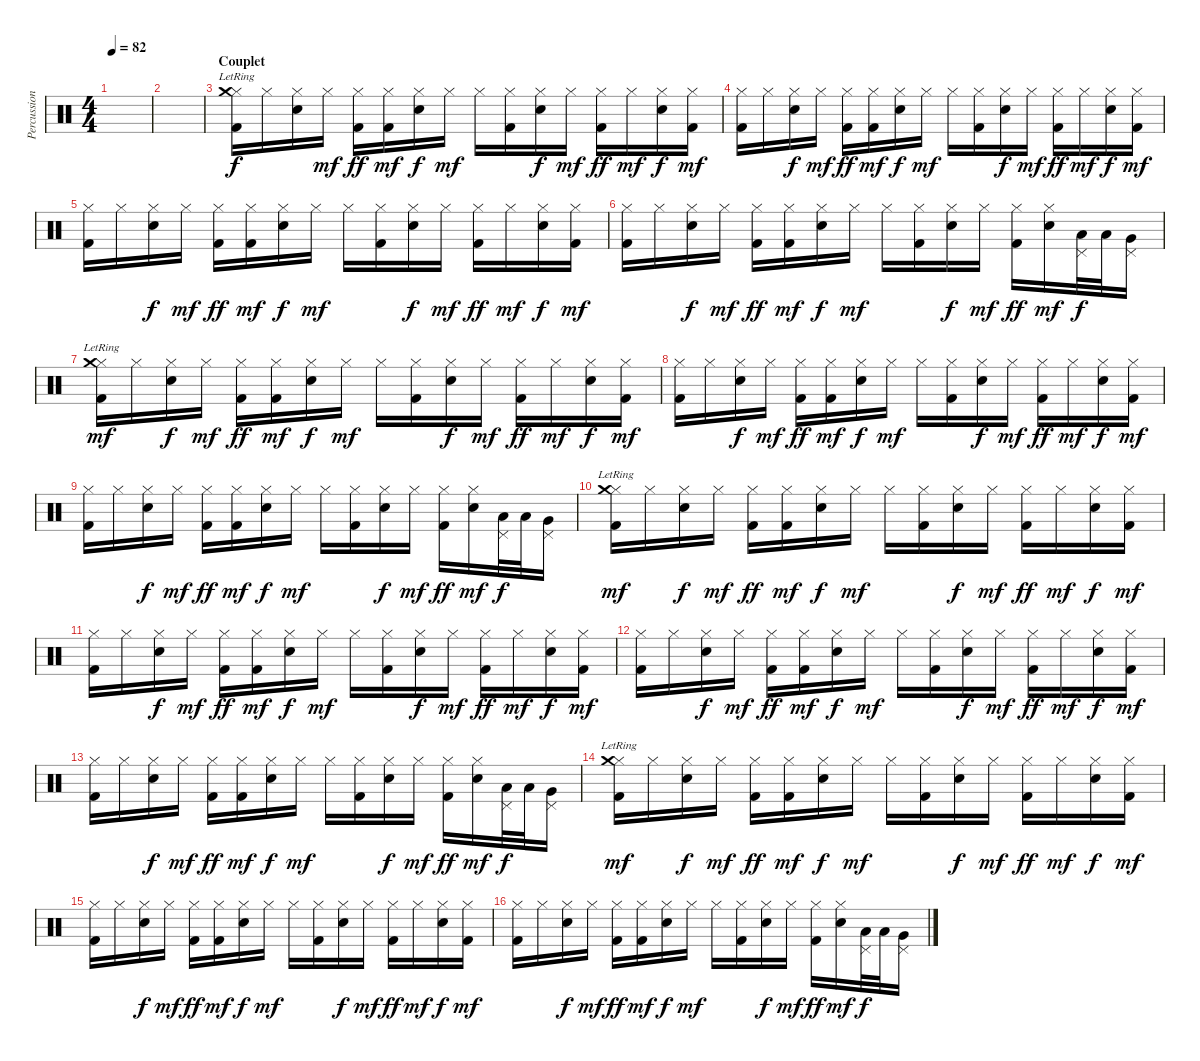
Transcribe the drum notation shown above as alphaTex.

\track ("Percussions" "Percussion") {instrument percussion}
\staff {score}
\articulation defaults
\ts (4 4)
\tempo 82
\clef neutral
\ks c
|
|
\section ("" "Couplet")
("Hi-Hat (closed)" "Crash medium (hit)"{lr} "Kick (hit) 2").16 "Hi-Hat (closed)".16 ("Hi-Hat (closed)" "Snare (hit) 2").16{dy f} "Hi-Hat (closed)".16{dy mf} ("Hi-Hat (closed)" "Kick (hit) 2").16{dy ff} ("Hi-Hat (closed)" "Kick (hit) 2").16{dy mf} ("Hi-Hat (closed)" "Snare (hit) 2").16{dy f} "Hi-Hat (closed)".16{dy mf} "Hi-Hat (closed)".16 ("Hi-Hat (closed)" "Kick (hit) 2").16 ("Hi-Hat (closed)" "Snare (hit) 2").16{dy f} "Hi-Hat (closed)".16{dy mf} ("Hi-Hat (closed)" "Kick (hit) 2").16{dy ff} "Hi-Hat (closed)".16{dy mf} ("Hi-Hat (closed)" "Snare (hit) 2").16{dy f} ("Hi-Hat (closed)" "Kick (hit) 2").16{dy mf} |
("Hi-Hat (closed)" "Kick (hit) 2").16 "Hi-Hat (closed)".16 ("Hi-Hat (closed)" "Snare (hit) 2").16{dy f} "Hi-Hat (closed)".16{dy mf} ("Hi-Hat (closed)" "Kick (hit) 2").16{dy ff} ("Hi-Hat (closed)" "Kick (hit) 2").16{dy mf} ("Hi-Hat (closed)" "Snare (hit) 2").16{dy f} "Hi-Hat (closed)".16{dy mf} "Hi-Hat (closed)".16 ("Hi-Hat (closed)" "Kick (hit) 2").16 ("Hi-Hat (closed)" "Snare (hit) 2").16{dy f} "Hi-Hat (closed)".16{dy mf} ("Hi-Hat (closed)" "Kick (hit) 2").16{dy ff} "Hi-Hat (closed)".16{dy mf} ("Hi-Hat (closed)" "Snare (hit) 2").16{dy f} ("Hi-Hat (closed)" "Kick (hit) 2").16{dy mf} |
("Hi-Hat (closed)" "Kick (hit) 2").16 "Hi-Hat (closed)".16 ("Hi-Hat (closed)" "Snare (hit) 2").16{dy f} "Hi-Hat (closed)".16{dy mf} ("Hi-Hat (closed)" "Kick (hit) 2").16{dy ff} ("Hi-Hat (closed)" "Kick (hit) 2").16{dy mf} ("Hi-Hat (closed)" "Snare (hit) 2").16{dy f} "Hi-Hat (closed)".16{dy mf} "Hi-Hat (closed)".16 ("Hi-Hat (closed)" "Kick (hit) 2").16 ("Hi-Hat (closed)" "Snare (hit) 2").16{dy f} "Hi-Hat (closed)".16{dy mf} ("Hi-Hat (closed)" "Kick (hit) 2").16{dy ff} "Hi-Hat (closed)".16{dy mf} ("Hi-Hat (closed)" "Snare (hit) 2").16{dy f} ("Hi-Hat (closed)" "Kick (hit) 2").16{dy mf} |
("Hi-Hat (closed)" "Kick (hit) 2").16 "Hi-Hat (closed)".16 ("Hi-Hat (closed)" "Snare (hit) 2").16{dy f} "Hi-Hat (closed)".16{dy mf} ("Hi-Hat (closed)" "Kick (hit) 2").16{dy ff} ("Hi-Hat (closed)" "Kick (hit) 2").16{dy mf} ("Hi-Hat (closed)" "Snare (hit) 2").16{dy f} "Hi-Hat (closed)".16{dy mf} "Hi-Hat (closed)".16 ("Hi-Hat (closed)" "Kick (hit) 2").16 ("Hi-Hat (closed)" "Snare (hit) 2").16{dy f} "Hi-Hat (closed)".16{dy mf} ("Hi-Hat (closed)" "Kick (hit) 2").16{dy ff} ("Hi-Hat (closed)" "Snare (hit) 2").16{dy mf} ("Pedal Hi-Hat (hit)" "Low Tom (hit)").32{dy f} "Low Tom (hit)".32 ("Pedal Hi-Hat (hit)" "Very Low Tom (hit)").16 |
("Hi-Hat (closed)" "Crash medium (hit)"{lr} "Kick (hit) 2").16{dy mf} "Hi-Hat (closed)".16 ("Hi-Hat (closed)" "Snare (hit) 2").16{dy f} "Hi-Hat (closed)".16{dy mf} ("Hi-Hat (closed)" "Kick (hit) 2").16{dy ff} ("Hi-Hat (closed)" "Kick (hit) 2").16{dy mf} ("Hi-Hat (closed)" "Snare (hit) 2").16{dy f} "Hi-Hat (closed)".16{dy mf} "Hi-Hat (closed)".16 ("Hi-Hat (closed)" "Kick (hit) 2").16 ("Hi-Hat (closed)" "Snare (hit) 2").16{dy f} "Hi-Hat (closed)".16{dy mf} ("Hi-Hat (closed)" "Kick (hit) 2").16{dy ff} "Hi-Hat (closed)".16{dy mf} ("Hi-Hat (closed)" "Snare (hit) 2").16{dy f} ("Hi-Hat (closed)" "Kick (hit) 2").16{dy mf} |
("Hi-Hat (closed)" "Kick (hit) 2").16 "Hi-Hat (closed)".16 ("Hi-Hat (closed)" "Snare (hit) 2").16{dy f} "Hi-Hat (closed)".16{dy mf} ("Hi-Hat (closed)" "Kick (hit) 2").16{dy ff} ("Hi-Hat (closed)" "Kick (hit) 2").16{dy mf} ("Hi-Hat (closed)" "Snare (hit) 2").16{dy f} "Hi-Hat (closed)".16{dy mf} "Hi-Hat (closed)".16 ("Hi-Hat (closed)" "Kick (hit) 2").16 ("Hi-Hat (closed)" "Snare (hit) 2").16{dy f} "Hi-Hat (closed)".16{dy mf} ("Hi-Hat (closed)" "Kick (hit) 2").16{dy ff} "Hi-Hat (closed)".16{dy mf} ("Hi-Hat (closed)" "Snare (hit) 2").16{dy f} ("Hi-Hat (closed)" "Kick (hit) 2").16{dy mf} |
("Hi-Hat (closed)" "Kick (hit) 2").16 "Hi-Hat (closed)".16 ("Hi-Hat (closed)" "Snare (hit) 2").16{dy f} "Hi-Hat (closed)".16{dy mf} ("Hi-Hat (closed)" "Kick (hit) 2").16{dy ff} ("Hi-Hat (closed)" "Kick (hit) 2").16{dy mf} ("Hi-Hat (closed)" "Snare (hit) 2").16{dy f} "Hi-Hat (closed)".16{dy mf} "Hi-Hat (closed)".16 ("Hi-Hat (closed)" "Kick (hit) 2").16 ("Hi-Hat (closed)" "Snare (hit) 2").16{dy f} "Hi-Hat (closed)".16{dy mf} ("Hi-Hat (closed)" "Kick (hit) 2").16{dy ff} ("Hi-Hat (closed)" "Snare (hit) 2").16{dy mf} ("Pedal Hi-Hat (hit)" "Low Tom (hit)").32{dy f} "Low Tom (hit)".32 ("Pedal Hi-Hat (hit)" "Very Low Tom (hit)").16 |
("Hi-Hat (closed)" "Crash medium (hit)"{lr} "Kick (hit) 2").16{dy mf} "Hi-Hat (closed)".16 ("Hi-Hat (closed)" "Snare (hit) 2").16{dy f} "Hi-Hat (closed)".16{dy mf} ("Hi-Hat (closed)" "Kick (hit) 2").16{dy ff} ("Hi-Hat (closed)" "Kick (hit) 2").16{dy mf} ("Hi-Hat (closed)" "Snare (hit) 2").16{dy f} "Hi-Hat (closed)".16{dy mf} "Hi-Hat (closed)".16 ("Hi-Hat (closed)" "Kick (hit) 2").16 ("Hi-Hat (closed)" "Snare (hit) 2").16{dy f} "Hi-Hat (closed)".16{dy mf} ("Hi-Hat (closed)" "Kick (hit) 2").16{dy ff} "Hi-Hat (closed)".16{dy mf} ("Hi-Hat (closed)" "Snare (hit) 2").16{dy f} ("Hi-Hat (closed)" "Kick (hit) 2").16{dy mf} |
("Hi-Hat (closed)" "Kick (hit) 2").16 "Hi-Hat (closed)".16 ("Hi-Hat (closed)" "Snare (hit) 2").16{dy f} "Hi-Hat (closed)".16{dy mf} ("Hi-Hat (closed)" "Kick (hit) 2").16{dy ff} ("Hi-Hat (closed)" "Kick (hit) 2").16{dy mf} ("Hi-Hat (closed)" "Snare (hit) 2").16{dy f} "Hi-Hat (closed)".16{dy mf} "Hi-Hat (closed)".16 ("Hi-Hat (closed)" "Kick (hit) 2").16 ("Hi-Hat (closed)" "Snare (hit) 2").16{dy f} "Hi-Hat (closed)".16{dy mf} ("Hi-Hat (closed)" "Kick (hit) 2").16{dy ff} "Hi-Hat (closed)".16{dy mf} ("Hi-Hat (closed)" "Snare (hit) 2").16{dy f} ("Hi-Hat (closed)" "Kick (hit) 2").16{dy mf} |
("Hi-Hat (closed)" "Kick (hit) 2").16 "Hi-Hat (closed)".16 ("Hi-Hat (closed)" "Snare (hit) 2").16{dy f} "Hi-Hat (closed)".16{dy mf} ("Hi-Hat (closed)" "Kick (hit) 2").16{dy ff} ("Hi-Hat (closed)" "Kick (hit) 2").16{dy mf} ("Hi-Hat (closed)" "Snare (hit) 2").16{dy f} "Hi-Hat (closed)".16{dy mf} "Hi-Hat (closed)".16 ("Hi-Hat (closed)" "Kick (hit) 2").16 ("Hi-Hat (closed)" "Snare (hit) 2").16{dy f} "Hi-Hat (closed)".16{dy mf} ("Hi-Hat (closed)" "Kick (hit) 2").16{dy ff} "Hi-Hat (closed)".16{dy mf} ("Hi-Hat (closed)" "Snare (hit) 2").16{dy f} ("Hi-Hat (closed)" "Kick (hit) 2").16{dy mf} |
("Hi-Hat (closed)" "Kick (hit) 2").16 "Hi-Hat (closed)".16 ("Hi-Hat (closed)" "Snare (hit) 2").16{dy f} "Hi-Hat (closed)".16{dy mf} ("Hi-Hat (closed)" "Kick (hit) 2").16{dy ff} ("Hi-Hat (closed)" "Kick (hit) 2").16{dy mf} ("Hi-Hat (closed)" "Snare (hit) 2").16{dy f} "Hi-Hat (closed)".16{dy mf} "Hi-Hat (closed)".16 ("Hi-Hat (closed)" "Kick (hit) 2").16 ("Hi-Hat (closed)" "Snare (hit) 2").16{dy f} "Hi-Hat (closed)".16{dy mf} ("Hi-Hat (closed)" "Kick (hit) 2").16{dy ff} ("Hi-Hat (closed)" "Snare (hit) 2").16{dy mf} ("Pedal Hi-Hat (hit)" "Low Tom (hit)").32{dy f} "Low Tom (hit)".32 ("Pedal Hi-Hat (hit)" "Very Low Tom (hit)").16 |
("Hi-Hat (closed)" "Crash medium (hit)"{lr} "Kick (hit) 2").16{dy mf} "Hi-Hat (closed)".16 ("Hi-Hat (closed)" "Snare (hit) 2").16{dy f} "Hi-Hat (closed)".16{dy mf} ("Hi-Hat (closed)" "Kick (hit) 2").16{dy ff} ("Hi-Hat (closed)" "Kick (hit) 2").16{dy mf} ("Hi-Hat (closed)" "Snare (hit) 2").16{dy f} "Hi-Hat (closed)".16{dy mf} "Hi-Hat (closed)".16 ("Hi-Hat (closed)" "Kick (hit) 2").16 ("Hi-Hat (closed)" "Snare (hit) 2").16{dy f} "Hi-Hat (closed)".16{dy mf} ("Hi-Hat (closed)" "Kick (hit) 2").16{dy ff} "Hi-Hat (closed)".16{dy mf} ("Hi-Hat (closed)" "Snare (hit) 2").16{dy f} ("Hi-Hat (closed)" "Kick (hit) 2").16{dy mf} |
("Hi-Hat (closed)" "Kick (hit) 2").16 "Hi-Hat (closed)".16 ("Hi-Hat (closed)" "Snare (hit) 2").16{dy f} "Hi-Hat (closed)".16{dy mf} ("Hi-Hat (closed)" "Kick (hit) 2").16{dy ff} ("Hi-Hat (closed)" "Kick (hit) 2").16{dy mf} ("Hi-Hat (closed)" "Snare (hit) 2").16{dy f} "Hi-Hat (closed)".16{dy mf} "Hi-Hat (closed)".16 ("Hi-Hat (closed)" "Kick (hit) 2").16 ("Hi-Hat (closed)" "Snare (hit) 2").16{dy f} "Hi-Hat (closed)".16{dy mf} ("Hi-Hat (closed)" "Kick (hit) 2").16{dy ff} "Hi-Hat (closed)".16{dy mf} ("Hi-Hat (closed)" "Snare (hit) 2").16{dy f} ("Hi-Hat (closed)" "Kick (hit) 2").16{dy mf} |
("Hi-Hat (closed)" "Kick (hit) 2").16 "Hi-Hat (closed)".16 ("Hi-Hat (closed)" "Snare (hit) 2").16{dy f} "Hi-Hat (closed)".16{dy mf} ("Hi-Hat (closed)" "Kick (hit) 2").16{dy ff} ("Hi-Hat (closed)" "Kick (hit) 2").16{dy mf} ("Hi-Hat (closed)" "Snare (hit) 2").16{dy f} "Hi-Hat (closed)".16{dy mf} "Hi-Hat (closed)".16 ("Hi-Hat (closed)" "Kick (hit) 2").16 ("Hi-Hat (closed)" "Snare (hit) 2").16{dy f} "Hi-Hat (closed)".16{dy mf} ("Hi-Hat (closed)" "Kick (hit) 2").16{dy ff} ("Hi-Hat (closed)" "Snare (hit) 2").16{dy mf} ("Pedal Hi-Hat (hit)" "Low Tom (hit)").32{dy f} "Low Tom (hit)".32 ("Pedal Hi-Hat (hit)" "Very Low Tom (hit)").16
